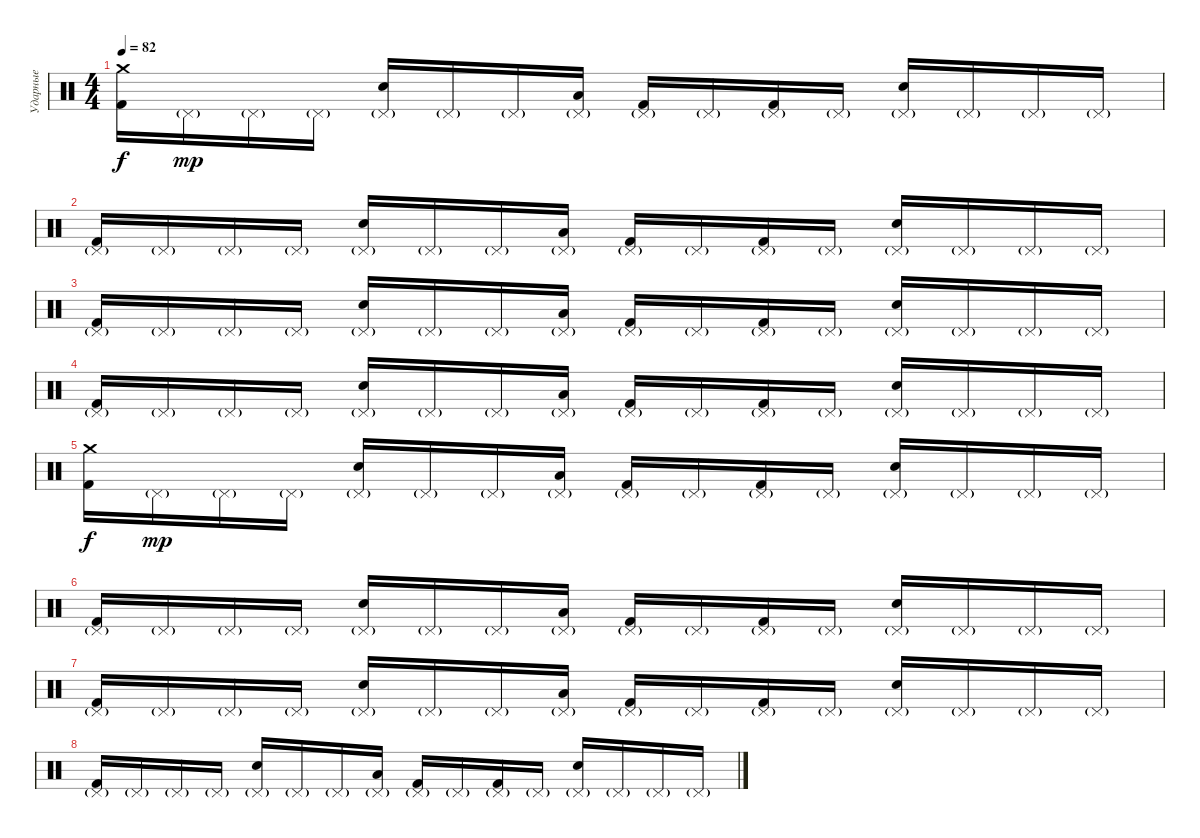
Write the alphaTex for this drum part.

\track ("Ударные" "Ударные") {instrument percussion}
\staff {score}
\articulation defaults
\ts (4 4)
\tempo 82
\clef neutral
\ks c
("Crash medium (hit)" "Kick (hit) 2").16{dy f volume 6} "Pedal Hi-Hat (hit)"{g}.16{dy mp} "Pedal Hi-Hat (hit)"{g}.16 "Pedal Hi-Hat (hit)"{g}.16 ("Pedal Hi-Hat (hit)"{g} "Electric Snare (hit)").16 "Pedal Hi-Hat (hit)"{g}.16 "Pedal Hi-Hat (hit)"{g}.16 ("Pedal Hi-Hat (hit)"{g} "Low Floor Tom (hit)").16 ("Pedal Hi-Hat (hit)"{g} "Kick (hit) 2").16 "Pedal Hi-Hat (hit)"{g}.16 ("Pedal Hi-Hat (hit)"{g} "Kick (hit) 2").16 "Pedal Hi-Hat (hit)"{g}.16 ("Pedal Hi-Hat (hit)"{g} "Electric Snare (hit)").16 "Pedal Hi-Hat (hit)"{g}.16 "Pedal Hi-Hat (hit)"{g}.16 "Pedal Hi-Hat (hit)"{g}.16 |
("Pedal Hi-Hat (hit)"{g} "Kick (hit) 2").16 "Pedal Hi-Hat (hit)"{g}.16 "Pedal Hi-Hat (hit)"{g}.16 "Pedal Hi-Hat (hit)"{g}.16 ("Pedal Hi-Hat (hit)"{g} "Electric Snare (hit)").16 "Pedal Hi-Hat (hit)"{g}.16 "Pedal Hi-Hat (hit)"{g}.16 ("Pedal Hi-Hat (hit)"{g} "Low Floor Tom (hit)").16 ("Pedal Hi-Hat (hit)"{g} "Kick (hit) 2").16 "Pedal Hi-Hat (hit)"{g}.16 ("Pedal Hi-Hat (hit)"{g} "Kick (hit) 2").16 "Pedal Hi-Hat (hit)"{g}.16 ("Pedal Hi-Hat (hit)"{g} "Electric Snare (hit)").16 "Pedal Hi-Hat (hit)"{g}.16 "Pedal Hi-Hat (hit)"{g}.16 "Pedal Hi-Hat (hit)"{g}.16 |
("Pedal Hi-Hat (hit)"{g} "Kick (hit) 2").16 "Pedal Hi-Hat (hit)"{g}.16 "Pedal Hi-Hat (hit)"{g}.16 "Pedal Hi-Hat (hit)"{g}.16 ("Pedal Hi-Hat (hit)"{g} "Electric Snare (hit)").16 "Pedal Hi-Hat (hit)"{g}.16 "Pedal Hi-Hat (hit)"{g}.16 ("Pedal Hi-Hat (hit)"{g} "Low Floor Tom (hit)").16 ("Pedal Hi-Hat (hit)"{g} "Kick (hit) 2").16 "Pedal Hi-Hat (hit)"{g}.16 ("Pedal Hi-Hat (hit)"{g} "Kick (hit) 2").16 "Pedal Hi-Hat (hit)"{g}.16 ("Pedal Hi-Hat (hit)"{g} "Electric Snare (hit)").16 "Pedal Hi-Hat (hit)"{g}.16 "Pedal Hi-Hat (hit)"{g}.16 "Pedal Hi-Hat (hit)"{g}.16 |
("Pedal Hi-Hat (hit)"{g} "Kick (hit) 2").16 "Pedal Hi-Hat (hit)"{g}.16 "Pedal Hi-Hat (hit)"{g}.16 "Pedal Hi-Hat (hit)"{g}.16 ("Pedal Hi-Hat (hit)"{g} "Electric Snare (hit)").16 "Pedal Hi-Hat (hit)"{g}.16 "Pedal Hi-Hat (hit)"{g}.16 ("Pedal Hi-Hat (hit)"{g} "Low Floor Tom (hit)").16 ("Pedal Hi-Hat (hit)"{g} "Kick (hit) 2").16 "Pedal Hi-Hat (hit)"{g}.16 ("Pedal Hi-Hat (hit)"{g} "Kick (hit) 2").16 "Pedal Hi-Hat (hit)"{g}.16 ("Pedal Hi-Hat (hit)"{g} "Electric Snare (hit)").16 "Pedal Hi-Hat (hit)"{g}.16 "Pedal Hi-Hat (hit)"{g}.16 "Pedal Hi-Hat (hit)"{g}.16 |
("Crash medium (hit)" "Kick (hit) 2").16{dy f volume 1} "Pedal Hi-Hat (hit)"{g}.16{dy mp} "Pedal Hi-Hat (hit)"{g}.16 "Pedal Hi-Hat (hit)"{g}.16 ("Pedal Hi-Hat (hit)"{g} "Electric Snare (hit)").16 "Pedal Hi-Hat (hit)"{g}.16 "Pedal Hi-Hat (hit)"{g}.16 ("Pedal Hi-Hat (hit)"{g} "Low Floor Tom (hit)").16 ("Pedal Hi-Hat (hit)"{g} "Kick (hit) 2").16 "Pedal Hi-Hat (hit)"{g}.16 ("Pedal Hi-Hat (hit)"{g} "Kick (hit) 2").16 "Pedal Hi-Hat (hit)"{g}.16 ("Pedal Hi-Hat (hit)"{g} "Electric Snare (hit)").16 "Pedal Hi-Hat (hit)"{g}.16 "Pedal Hi-Hat (hit)"{g}.16 "Pedal Hi-Hat (hit)"{g}.16 |
("Pedal Hi-Hat (hit)"{g} "Kick (hit) 2").16 "Pedal Hi-Hat (hit)"{g}.16 "Pedal Hi-Hat (hit)"{g}.16 "Pedal Hi-Hat (hit)"{g}.16 ("Pedal Hi-Hat (hit)"{g} "Electric Snare (hit)").16 "Pedal Hi-Hat (hit)"{g}.16 "Pedal Hi-Hat (hit)"{g}.16 ("Pedal Hi-Hat (hit)"{g} "Low Floor Tom (hit)").16 ("Pedal Hi-Hat (hit)"{g} "Kick (hit) 2").16 "Pedal Hi-Hat (hit)"{g}.16 ("Pedal Hi-Hat (hit)"{g} "Kick (hit) 2").16 "Pedal Hi-Hat (hit)"{g}.16 ("Pedal Hi-Hat (hit)"{g} "Electric Snare (hit)").16 "Pedal Hi-Hat (hit)"{g}.16 "Pedal Hi-Hat (hit)"{g}.16 "Pedal Hi-Hat (hit)"{g}.16 |
("Pedal Hi-Hat (hit)"{g} "Kick (hit) 2").16 "Pedal Hi-Hat (hit)"{g}.16 "Pedal Hi-Hat (hit)"{g}.16 "Pedal Hi-Hat (hit)"{g}.16 ("Pedal Hi-Hat (hit)"{g} "Electric Snare (hit)").16 "Pedal Hi-Hat (hit)"{g}.16 "Pedal Hi-Hat (hit)"{g}.16 ("Pedal Hi-Hat (hit)"{g} "Low Floor Tom (hit)").16 ("Pedal Hi-Hat (hit)"{g} "Kick (hit) 2").16 "Pedal Hi-Hat (hit)"{g}.16 ("Pedal Hi-Hat (hit)"{g} "Kick (hit) 2").16 "Pedal Hi-Hat (hit)"{g}.16 ("Pedal Hi-Hat (hit)"{g} "Electric Snare (hit)").16 "Pedal Hi-Hat (hit)"{g}.16 "Pedal Hi-Hat (hit)"{g}.16 "Pedal Hi-Hat (hit)"{g}.16 |
("Pedal Hi-Hat (hit)"{g} "Kick (hit) 2").16 "Pedal Hi-Hat (hit)"{g}.16 "Pedal Hi-Hat (hit)"{g}.16 "Pedal Hi-Hat (hit)"{g}.16 ("Pedal Hi-Hat (hit)"{g} "Electric Snare (hit)").16 "Pedal Hi-Hat (hit)"{g}.16 "Pedal Hi-Hat (hit)"{g}.16 ("Pedal Hi-Hat (hit)"{g} "Low Floor Tom (hit)").16 ("Pedal Hi-Hat (hit)"{g} "Kick (hit) 2").16 "Pedal Hi-Hat (hit)"{g}.16 ("Pedal Hi-Hat (hit)"{g} "Kick (hit) 2").16 "Pedal Hi-Hat (hit)"{g}.16 ("Pedal Hi-Hat (hit)"{g} "Electric Snare (hit)").16 "Pedal Hi-Hat (hit)"{g}.16 "Pedal Hi-Hat (hit)"{g}.16 "Pedal Hi-Hat (hit)"{g}.16
